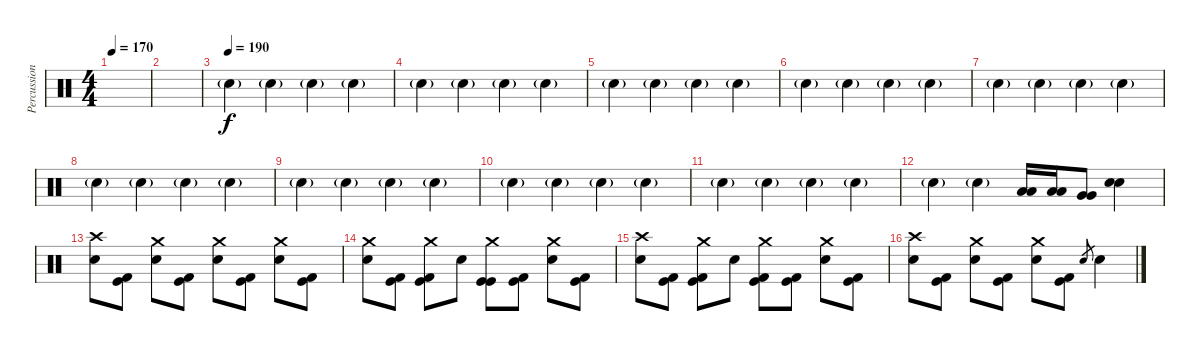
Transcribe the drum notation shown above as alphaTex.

\track ("Percussions" "Percussion") {instrument percussion}
\staff {score}
\articulation defaults
\ts (4 4)
\tempo 170
\clef neutral
\ks c
|
|
\tempo (190)
"Electric Snare (hit)"{g}.4 "Electric Snare (hit)"{g}.4 "Electric Snare (hit)"{g}.4 "Electric Snare (hit)"{g}.4 |
"Electric Snare (hit)"{g}.4 "Electric Snare (hit)"{g}.4 "Electric Snare (hit)"{g}.4 "Electric Snare (hit)"{g}.4 |
"Electric Snare (hit)"{g}.4 "Electric Snare (hit)"{g}.4 "Electric Snare (hit)"{g}.4 "Electric Snare (hit)"{g}.4 |
"Electric Snare (hit)"{g}.4 "Electric Snare (hit)"{g}.4 "Electric Snare (hit)"{g}.4 "Electric Snare (hit)"{g}.4 |
"Electric Snare (hit)"{g}.4 "Electric Snare (hit)"{g}.4 "Electric Snare (hit)"{g}.4 "Electric Snare (hit)"{g}.4 |
"Electric Snare (hit)"{g}.4 "Electric Snare (hit)"{g}.4 "Electric Snare (hit)"{g}.4 "Electric Snare (hit)"{g}.4 |
"Electric Snare (hit)"{g}.4 "Electric Snare (hit)"{g}.4 "Electric Snare (hit)"{g}.4 "Electric Snare (hit)"{g}.4 |
"Electric Snare (hit)"{g}.4 "Electric Snare (hit)"{g}.4 "Electric Snare (hit)"{g}.4 "Electric Snare (hit)"{g}.4 |
"Electric Snare (hit)"{g}.4 "Electric Snare (hit)"{g}.4 "Electric Snare (hit)"{g}.4 "Electric Snare (hit)"{g}.4 |
"Electric Snare (hit)"{g}.4 "Electric Snare (hit)"{g}.4 ("Low Floor Tom (hit)" "Low Floor Tom (hit)").16{dy f} ("Low Floor Tom (hit)" "Low Floor Tom (hit)").16 ("Very Low Tom (hit)" "Very Low Tom (hit)").8 ("Electric Snare (hit)" "Electric Snare (hit)").4 |
("Crash high (hit)" "Electric Snare (hit)").8 ("Kick (hit)" "Kick (hit) 2").8 ("Crash medium (hit)" "Electric Snare (hit)").8 ("Kick (hit)" "Kick (hit) 2").8 ("Crash medium (hit)" "Electric Snare (hit)").8 ("Kick (hit)" "Kick (hit) 2").8 ("Crash medium (hit)" "Electric Snare (hit)").8 ("Kick (hit)" "Kick (hit) 2").8 |
("Crash medium (hit)" "Electric Snare (hit)").8 ("Kick (hit)" "Kick (hit) 2").8 ("Crash medium (hit)" "Kick (hit)" "Kick (hit) 2").8 "Electric Snare (hit)".8 ("Crash medium (hit)" "Kick (hit)" "Kick (hit)").8 ("Kick (hit)" "Kick (hit) 2").8 ("Crash medium (hit)" "Electric Snare (hit)").8 ("Kick (hit)" "Kick (hit) 2").8 |
("Crash high (hit)" "Electric Snare (hit)").8 ("Kick (hit)" "Kick (hit) 2").8 ("Crash medium (hit)" "Kick (hit)" "Kick (hit) 2").8 "Electric Snare (hit)".8 ("Crash medium (hit)" "Kick (hit)" "Kick (hit) 2").8 ("Kick (hit)" "Kick (hit) 2").8 ("Crash medium (hit)" "Electric Snare (hit)").8 ("Kick (hit)" "Kick (hit) 2").8 |
("Crash high (hit)" "Electric Snare (hit)").8 ("Kick (hit)" "Kick (hit) 2").8 ("Crash medium (hit)" "Electric Snare (hit)").8 ("Kick (hit)" "Kick (hit) 2").8 ("Crash medium (hit)" "Electric Snare (hit)").8 ("Kick (hit)" "Kick (hit) 2").8 "Electric Snare (hit)".8{gr} "Electric Snare (hit)".4
